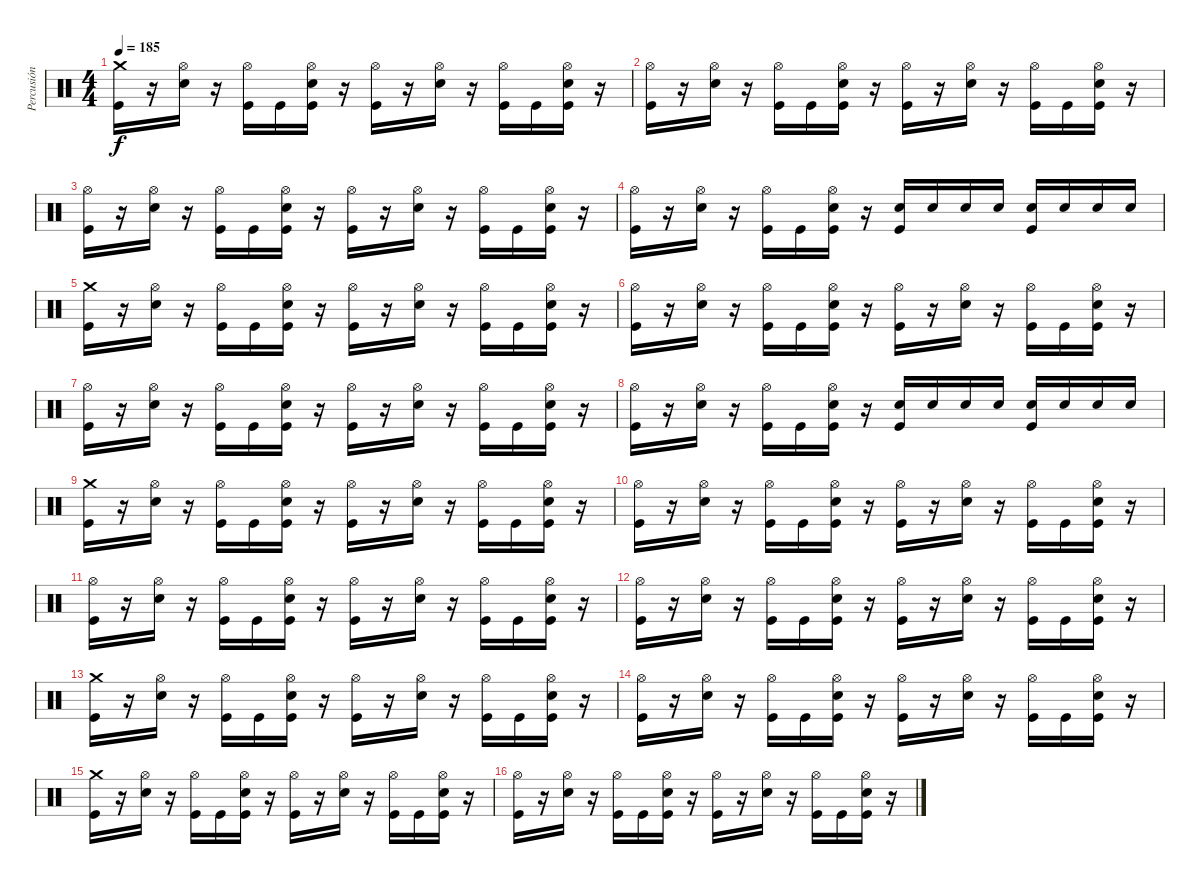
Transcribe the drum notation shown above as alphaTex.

\track ("Percusión" "Percusión") {instrument percussion}
\staff {score}
\articulation defaults
\ts (4 4)
\tempo 185
\clef neutral
\ks c
("Crash medium (hit)" "Kick (hit)").16{dy f} r.16 ("Hi-Hat (open)" "Electric Snare (hit)").16 r.16 ("Hi-Hat (open)" "Kick (hit)").16 "Kick (hit)".16 ("Hi-Hat (open)" "Electric Snare (hit)" "Kick (hit)").16 r.16 ("Hi-Hat (open)" "Kick (hit)").16 r.16 ("Hi-Hat (open)" "Electric Snare (hit)").16 r.16 ("Hi-Hat (open)" "Kick (hit)").16 "Kick (hit)".16 ("Hi-Hat (open)" "Electric Snare (hit)" "Kick (hit)").16 r.16 |
("Hi-Hat (open)" "Kick (hit)").16 r.16 ("Hi-Hat (open)" "Electric Snare (hit)").16 r.16 ("Hi-Hat (open)" "Kick (hit)").16 "Kick (hit)".16 ("Hi-Hat (open)" "Electric Snare (hit)" "Kick (hit)").16 r.16 ("Hi-Hat (open)" "Kick (hit)").16 r.16 ("Hi-Hat (open)" "Electric Snare (hit)").16 r.16 ("Hi-Hat (open)" "Kick (hit)").16 "Kick (hit)".16 ("Hi-Hat (open)" "Electric Snare (hit)" "Kick (hit)").16 r.16 |
("Hi-Hat (open)" "Kick (hit)").16 r.16 ("Hi-Hat (open)" "Electric Snare (hit)").16 r.16 ("Hi-Hat (open)" "Kick (hit)").16 "Kick (hit)".16 ("Hi-Hat (open)" "Electric Snare (hit)" "Kick (hit)").16 r.16 ("Hi-Hat (open)" "Kick (hit)").16 r.16 ("Hi-Hat (open)" "Electric Snare (hit)").16 r.16 ("Hi-Hat (open)" "Kick (hit)").16 "Kick (hit)".16 ("Hi-Hat (open)" "Electric Snare (hit)" "Kick (hit)").16 r.16 |
("Hi-Hat (open)" "Kick (hit)").16 r.16 ("Hi-Hat (open)" "Electric Snare (hit)").16 r.16 ("Hi-Hat (open)" "Kick (hit)").16 "Kick (hit)".16 ("Hi-Hat (open)" "Electric Snare (hit)" "Kick (hit)").16 r.16 ("Electric Snare (hit)" "Kick (hit)").16 "Electric Snare (hit)".16 "Electric Snare (hit)".16 "Electric Snare (hit)".16 ("Electric Snare (hit)" "Kick (hit)").16 "Electric Snare (hit)".16 "Electric Snare (hit)".16 "Electric Snare (hit)".16 |
("Crash medium (hit)" "Kick (hit)").16 r.16 ("Hi-Hat (open)" "Electric Snare (hit)").16 r.16 ("Hi-Hat (open)" "Kick (hit)").16 "Kick (hit)".16 ("Hi-Hat (open)" "Electric Snare (hit)" "Kick (hit)").16 r.16 ("Hi-Hat (open)" "Kick (hit)").16 r.16 ("Hi-Hat (open)" "Electric Snare (hit)").16 r.16 ("Hi-Hat (open)" "Kick (hit)").16 "Kick (hit)".16 ("Hi-Hat (open)" "Electric Snare (hit)" "Kick (hit)").16 r.16 |
("Hi-Hat (open)" "Kick (hit)").16 r.16 ("Hi-Hat (open)" "Electric Snare (hit)").16 r.16 ("Hi-Hat (open)" "Kick (hit)").16 "Kick (hit)".16 ("Hi-Hat (open)" "Electric Snare (hit)" "Kick (hit)").16 r.16 ("Hi-Hat (open)" "Kick (hit)").16 r.16 ("Hi-Hat (open)" "Electric Snare (hit)").16 r.16 ("Hi-Hat (open)" "Kick (hit)").16 "Kick (hit)".16 ("Hi-Hat (open)" "Electric Snare (hit)" "Kick (hit)").16 r.16 |
("Hi-Hat (open)" "Kick (hit)").16 r.16 ("Hi-Hat (open)" "Electric Snare (hit)").16 r.16 ("Hi-Hat (open)" "Kick (hit)").16 "Kick (hit)".16 ("Hi-Hat (open)" "Electric Snare (hit)" "Kick (hit)").16 r.16 ("Hi-Hat (open)" "Kick (hit)").16 r.16 ("Hi-Hat (open)" "Electric Snare (hit)").16 r.16 ("Hi-Hat (open)" "Kick (hit)").16 "Kick (hit)".16 ("Hi-Hat (open)" "Electric Snare (hit)" "Kick (hit)").16 r.16 |
("Hi-Hat (open)" "Kick (hit)").16 r.16 ("Hi-Hat (open)" "Electric Snare (hit)").16 r.16 ("Hi-Hat (open)" "Kick (hit)").16 "Kick (hit)".16 ("Hi-Hat (open)" "Electric Snare (hit)" "Kick (hit)").16 r.16 ("Electric Snare (hit)" "Kick (hit)").16 "Electric Snare (hit)".16 "Electric Snare (hit)".16 "Electric Snare (hit)".16 ("Electric Snare (hit)" "Kick (hit)").16 "Electric Snare (hit)".16 "Electric Snare (hit)".16 "Electric Snare (hit)".16 |
("Crash medium (hit)" "Kick (hit)").16 r.16 ("Hi-Hat (open)" "Electric Snare (hit)").16 r.16 ("Hi-Hat (open)" "Kick (hit)").16 "Kick (hit)".16 ("Hi-Hat (open)" "Electric Snare (hit)" "Kick (hit)").16 r.16 ("Hi-Hat (open)" "Kick (hit)").16 r.16 ("Hi-Hat (open)" "Electric Snare (hit)").16 r.16 ("Hi-Hat (open)" "Kick (hit)").16 "Kick (hit)".16 ("Hi-Hat (open)" "Electric Snare (hit)" "Kick (hit)").16 r.16 |
("Hi-Hat (open)" "Kick (hit)").16 r.16 ("Hi-Hat (open)" "Electric Snare (hit)").16 r.16 ("Hi-Hat (open)" "Kick (hit)").16 "Kick (hit)".16 ("Hi-Hat (open)" "Electric Snare (hit)" "Kick (hit)").16 r.16 ("Hi-Hat (open)" "Kick (hit)").16 r.16 ("Hi-Hat (open)" "Electric Snare (hit)").16 r.16 ("Hi-Hat (open)" "Kick (hit)").16 "Kick (hit)".16 ("Hi-Hat (open)" "Electric Snare (hit)" "Kick (hit)").16 r.16 |
("Hi-Hat (open)" "Kick (hit)").16 r.16 ("Hi-Hat (open)" "Electric Snare (hit)").16 r.16 ("Hi-Hat (open)" "Kick (hit)").16 "Kick (hit)".16 ("Hi-Hat (open)" "Electric Snare (hit)" "Kick (hit)").16 r.16 ("Hi-Hat (open)" "Kick (hit)").16 r.16 ("Hi-Hat (open)" "Electric Snare (hit)").16 r.16 ("Hi-Hat (open)" "Kick (hit)").16 "Kick (hit)".16 ("Hi-Hat (open)" "Electric Snare (hit)" "Kick (hit)").16 r.16 |
("Hi-Hat (open)" "Kick (hit)").16 r.16 ("Hi-Hat (open)" "Electric Snare (hit)").16 r.16 ("Hi-Hat (open)" "Kick (hit)").16 "Kick (hit)".16 ("Hi-Hat (open)" "Electric Snare (hit)" "Kick (hit)").16 r.16 ("Hi-Hat (open)" "Kick (hit)").16 r.16 ("Hi-Hat (open)" "Electric Snare (hit)").16 r.16 ("Hi-Hat (open)" "Kick (hit)").16 "Kick (hit)".16 ("Hi-Hat (open)" "Electric Snare (hit)" "Kick (hit)").16 r.16 |
("Crash medium (hit)" "Kick (hit)").16 r.16 ("Hi-Hat (open)" "Electric Snare (hit)").16 r.16 ("Hi-Hat (open)" "Kick (hit)").16 "Kick (hit)".16 ("Hi-Hat (open)" "Electric Snare (hit)" "Kick (hit)").16 r.16 ("Hi-Hat (open)" "Kick (hit)").16 r.16 ("Hi-Hat (open)" "Electric Snare (hit)").16 r.16 ("Hi-Hat (open)" "Kick (hit)").16 "Kick (hit)".16 ("Hi-Hat (open)" "Electric Snare (hit)" "Kick (hit)").16 r.16 |
("Hi-Hat (open)" "Kick (hit)").16 r.16 ("Hi-Hat (open)" "Electric Snare (hit)").16 r.16 ("Hi-Hat (open)" "Kick (hit)").16 "Kick (hit)".16 ("Hi-Hat (open)" "Electric Snare (hit)" "Kick (hit)").16 r.16 ("Hi-Hat (open)" "Kick (hit)").16 r.16 ("Hi-Hat (open)" "Electric Snare (hit)").16 r.16 ("Hi-Hat (open)" "Kick (hit)").16 "Kick (hit)".16 ("Hi-Hat (open)" "Electric Snare (hit)" "Kick (hit)").16 r.16 |
("Crash medium (hit)" "Kick (hit)").16 r.16 ("Hi-Hat (open)" "Electric Snare (hit)").16 r.16 ("Hi-Hat (open)" "Kick (hit)").16 "Kick (hit)".16 ("Hi-Hat (open)" "Electric Snare (hit)" "Kick (hit)").16 r.16 ("Hi-Hat (open)" "Kick (hit)").16 r.16 ("Hi-Hat (open)" "Electric Snare (hit)").16 r.16 ("Hi-Hat (open)" "Kick (hit)").16 "Kick (hit)".16 ("Hi-Hat (open)" "Electric Snare (hit)" "Kick (hit)").16 r.16 |
("Hi-Hat (open)" "Kick (hit)").16 r.16 ("Hi-Hat (open)" "Electric Snare (hit)").16 r.16 ("Hi-Hat (open)" "Kick (hit)").16 "Kick (hit)".16 ("Hi-Hat (open)" "Electric Snare (hit)" "Kick (hit)").16 r.16 ("Hi-Hat (open)" "Kick (hit)").16 r.16 ("Hi-Hat (open)" "Electric Snare (hit)").16 r.16 ("Hi-Hat (open)" "Kick (hit)").16 "Kick (hit)".16 ("Hi-Hat (open)" "Electric Snare (hit)" "Kick (hit)").16 r.16
